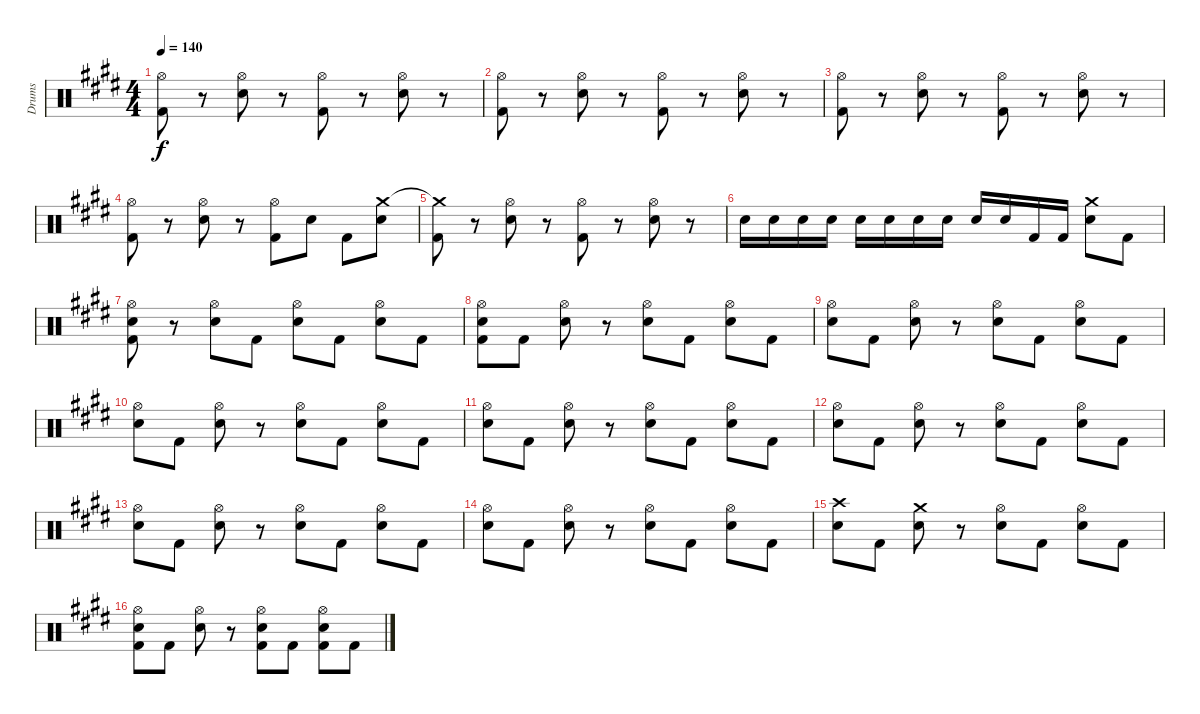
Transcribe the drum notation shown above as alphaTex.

\track ("Drums" "Drums") {instrument percussion}
\staff {score}
\articulation defaults
\ts (4 4)
\tempo 140
\clef neutral
\ks c#minor
("Hi-Hat (open)" "Kick (hit) 2").8{dy f} r.8 ("Hi-Hat (open)" "Electric Snare (hit)").8 r.8 ("Hi-Hat (open)" "Kick (hit) 2").8 r.8 ("Hi-Hat (open)" "Electric Snare (hit)").8 r.8 |
\ks e
("Hi-Hat (open)" "Kick (hit) 2").8 r.8 ("Hi-Hat (open)" "Electric Snare (hit)").8 r.8 ("Hi-Hat (open)" "Kick (hit) 2").8 r.8 ("Hi-Hat (open)" "Electric Snare (hit)").8 r.8 |
\ks c#minor
("Hi-Hat (open)" "Kick (hit) 2").8 r.8 ("Hi-Hat (open)" "Electric Snare (hit)").8 r.8 ("Hi-Hat (open)" "Kick (hit) 2").8 r.8 ("Hi-Hat (open)" "Electric Snare (hit)").8 r.8 |
\ks e
("Hi-Hat (open)" "Kick (hit) 2").8 r.8 ("Hi-Hat (open)" "Electric Snare (hit)").8 r.8 ("Hi-Hat (open)" "Kick (hit) 2").8 "Electric Snare (hit)".8 "Kick (hit) 2".8 ("Crash medium (hit)" "Electric Snare (hit)").8 |
\ks c#minor
("Crash medium (hit)"{t} "Kick (hit) 2").8 r.8 ("Hi-Hat (open)" "Electric Snare (hit)").8 r.8 ("Hi-Hat (open)" "Kick (hit) 2").8 r.8 ("Hi-Hat (open)" "Electric Snare (hit)").8 r.8 |
\ks e "Electric Snare (hit)".16 "Electric Snare (hit)".16 "Electric Snare (hit)".16 "Electric Snare (hit)".16 "Electric Snare (hit)".16 "Electric Snare (hit)".16 "Electric Snare (hit)".16 "Electric Snare (hit)".16 "Electric Snare (hit)".16 "Electric Snare (hit)".16 "Kick (hit) 2".16 "Kick (hit) 2".16
("Crash medium (hit)" "Electric Snare (hit)").8 "Kick (hit) 2".8 |
\ks c#minor
("Hi-Hat (open)" "Electric Snare (hit)" "Kick (hit) 2").8 r.8 ("Hi-Hat (open)" "Electric Snare (hit)").8 "Kick (hit) 2".8 ("Hi-Hat (open)" "Electric Snare (hit)").8 "Kick (hit) 2".8 ("Hi-Hat (open)" "Electric Snare (hit)").8 "Kick (hit) 2".8 |
("Hi-Hat (open)" "Electric Snare (hit)" "Kick (hit) 2").8 "Kick (hit) 2".8 ("Hi-Hat (open)" "Electric Snare (hit)").8 r.8 ("Hi-Hat (open)" "Electric Snare (hit)").8 "Kick (hit) 2".8 ("Hi-Hat (open)" "Electric Snare (hit)").8 "Kick (hit) 2".8 |
("Hi-Hat (open)" "Electric Snare (hit)").8 "Kick (hit) 2".8 ("Hi-Hat (open)" "Electric Snare (hit)").8 r.8 ("Hi-Hat (open)" "Electric Snare (hit)").8 "Kick (hit) 2".8 ("Hi-Hat (open)" "Electric Snare (hit)").8 "Kick (hit) 2".8 |
("Hi-Hat (open)" "Electric Snare (hit)").8 "Kick (hit) 2".8 ("Hi-Hat (open)" "Electric Snare (hit)").8 r.8 ("Hi-Hat (open)" "Electric Snare (hit)").8 "Kick (hit) 2".8 ("Hi-Hat (open)" "Electric Snare (hit)").8 "Kick (hit) 2".8 |
("Hi-Hat (open)" "Electric Snare (hit)").8 "Kick (hit) 2".8 ("Hi-Hat (open)" "Electric Snare (hit)").8 r.8 ("Hi-Hat (open)" "Electric Snare (hit)").8 "Kick (hit) 2".8 ("Hi-Hat (open)" "Electric Snare (hit)").8 "Kick (hit) 2".8 |
("Hi-Hat (open)" "Electric Snare (hit)").8 "Kick (hit) 2".8 ("Hi-Hat (open)" "Electric Snare (hit)").8 r.8 ("Hi-Hat (open)" "Electric Snare (hit)").8 "Kick (hit) 2".8 ("Hi-Hat (open)" "Electric Snare (hit)").8 "Kick (hit) 2".8 |
("Hi-Hat (open)" "Electric Snare (hit)").8 "Kick (hit) 2".8 ("Hi-Hat (open)" "Electric Snare (hit)").8 r.8 ("Hi-Hat (open)" "Electric Snare (hit)").8 "Kick (hit) 2".8 ("Hi-Hat (open)" "Electric Snare (hit)").8 "Kick (hit) 2".8 |
("Hi-Hat (open)" "Electric Snare (hit)").8 "Kick (hit) 2".8 ("Hi-Hat (open)" "Electric Snare (hit)").8 r.8 ("Hi-Hat (open)" "Electric Snare (hit)").8 "Kick (hit) 2".8 ("Hi-Hat (open)" "Electric Snare (hit)").8 "Kick (hit) 2".8 |
("Crash high (hit)" "Electric Snare (hit)").8 "Kick (hit) 2".8 ("Crash medium (hit)" "Electric Snare (hit)").8 r.8 ("Hi-Hat (open)" "Electric Snare (hit)").8 "Kick (hit) 2".8 ("Hi-Hat (open)" "Electric Snare (hit)").8 "Kick (hit) 2".8 |
("Hi-Hat (open)" "Electric Snare (hit)" "Kick (hit) 2").8 "Kick (hit) 2".8 ("Hi-Hat (open)" "Electric Snare (hit)").8 r.8 ("Hi-Hat (open)" "Electric Snare (hit)" "Kick (hit) 2").8 "Kick (hit) 2".8 ("Hi-Hat (open)" "Electric Snare (hit)" "Kick (hit) 2").8 "Kick (hit) 2".8
